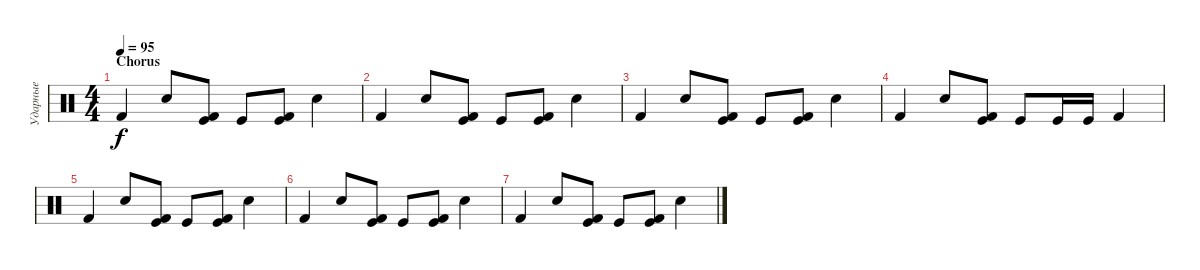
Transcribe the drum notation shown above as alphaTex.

\track ("Ударные" "Ударные") {instrument percussion}
\staff {score}
\articulation defaults
\ts (4 4)
\section ("" "Chorus")
\tempo 95
\clef neutral
\ks c "Kick (hit) 2".4{dy f} "Electric Snare (hit)".8
("Kick (hit) 2" "Kick (hit)").8 "Kick (hit)".8 ("Kick (hit) 2" "Kick (hit)").8 "Electric Snare (hit)".4 |
"Kick (hit) 2".4 "Electric Snare (hit)".8 ("Kick (hit) 2" "Kick (hit)").8 "Kick (hit)".8 ("Kick (hit) 2" "Kick (hit)").8 "Electric Snare (hit)".4 |
"Kick (hit) 2".4 "Electric Snare (hit)".8 ("Kick (hit) 2" "Kick (hit)").8 "Kick (hit)".8 ("Kick (hit) 2" "Kick (hit)").8 "Electric Snare (hit)".4 |
"Kick (hit) 2".4 "Electric Snare (hit)".8 ("Kick (hit) 2" "Kick (hit)").8 "Kick (hit)".8 "Kick (hit)".16 "Kick (hit)".16 "Kick (hit) 2".4 |
"Kick (hit) 2".4 "Electric Snare (hit)".8 ("Kick (hit) 2" "Kick (hit)").8 "Kick (hit)".8 ("Kick (hit) 2" "Kick (hit)").8 "Electric Snare (hit)".4 |
"Kick (hit) 2".4 "Electric Snare (hit)".8 ("Kick (hit) 2" "Kick (hit)").8 "Kick (hit)".8 ("Kick (hit) 2" "Kick (hit)").8 "Electric Snare (hit)".4 |
"Kick (hit) 2".4 "Electric Snare (hit)".8 ("Kick (hit) 2" "Kick (hit)").8 "Kick (hit)".8 ("Kick (hit) 2" "Kick (hit)").8 "Electric Snare (hit)".4
